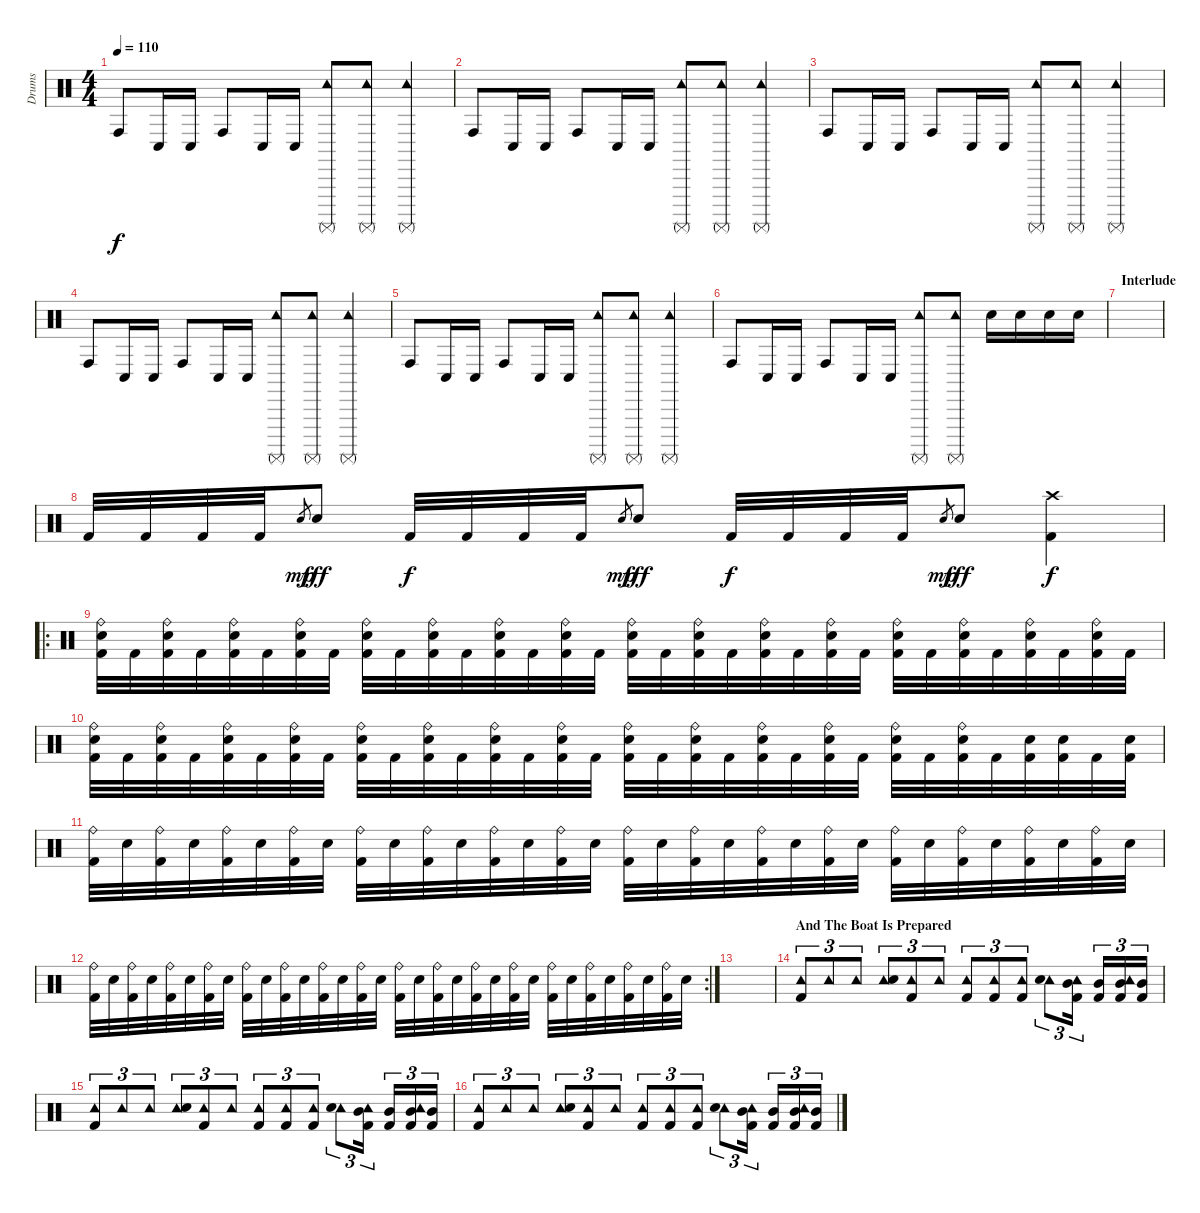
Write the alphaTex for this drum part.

\track ("Drums" "Drums") {instrument percussion}
\staff {score}
\articulation defaults
\ts (4 4)
\tempo 110
\clef neutral
\ks c "Conga high (hit)".8{dy f} "Conga low (hit)".16 "Conga low (hit)".16 "Conga high (hit)".8 "Conga low (hit)".16 "Conga low (hit)".16
("Tambourine (hit)" "Surdo (mute)").8 ("Tambourine (hit)" "Surdo (mute)").8 ("Tambourine (hit)" "Surdo (mute)").4 |
"Conga high (hit)".8 "Conga low (hit)".16 "Conga low (hit)".16 "Conga high (hit)".8 "Conga low (hit)".16 "Conga low (hit)".16 ("Tambourine (hit)" "Surdo (mute)").8 ("Tambourine (hit)" "Surdo (mute)").8 ("Tambourine (hit)" "Surdo (mute)").4 |
"Conga high (hit)".8 "Conga low (hit)".16 "Conga low (hit)".16 "Conga high (hit)".8 "Conga low (hit)".16 "Conga low (hit)".16 ("Tambourine (hit)" "Surdo (mute)").8 ("Tambourine (hit)" "Surdo (mute)").8 ("Tambourine (hit)" "Surdo (mute)").4 |
"Conga high (hit)".8 "Conga low (hit)".16 "Conga low (hit)".16 "Conga high (hit)".8 "Conga low (hit)".16 "Conga low (hit)".16 ("Tambourine (hit)" "Surdo (mute)").8 ("Tambourine (hit)" "Surdo (mute)").8 ("Tambourine (hit)" "Surdo (mute)").4 |
"Conga high (hit)".8 "Conga low (hit)".16 "Conga low (hit)".16 "Conga high (hit)".8 "Conga low (hit)".16 "Conga low (hit)".16 ("Tambourine (hit)" "Surdo (mute)").8 ("Tambourine (hit)" "Surdo (mute)").8 ("Tambourine (hit)" "Surdo (mute)").4 |
"Conga high (hit)".8 "Conga low (hit)".16 "Conga low (hit)".16 "Conga high (hit)".8 "Conga low (hit)".16 "Conga low (hit)".16 ("Tambourine (hit)" "Surdo (mute)").8 ("Tambourine (hit)" "Surdo (mute)").8 "Snare (hit) 2".16 "Snare (hit) 2".16 "Snare (hit) 2".16 "Snare (hit) 2".16 |
\section ("" "Interlude")
|
"Kick (hit) 2".32 "Kick (hit) 2".32 "Kick (hit) 2".32 "Kick (hit) 2".32 "Electric Snare (hit)".8{gr dy mp} "Electric Snare (hit)".8{dy fff} "Kick (hit) 2".32{dy f} "Kick (hit) 2".32 "Kick (hit) 2".32 "Kick (hit) 2".32 "Electric Snare (hit)".8{gr dy mp} "Electric Snare (hit)".8{dy fff} "Kick (hit) 2".32{dy f} "Kick (hit) 2".32 "Kick (hit) 2".32 "Kick (hit) 2".32 "Electric Snare (hit)".8{gr dy mp} "Electric Snare (hit)".8{dy fff} ("Crash high (hit)" "Kick (hit) 2").4{dy f} |
\ro
("Ride (bell)" "Electric Snare (hit)" "Kick (hit) 2").32 "Kick (hit) 2".32 ("Ride (bell)" "Electric Snare (hit)" "Kick (hit) 2").32 "Kick (hit) 2".32 ("Ride (bell)" "Electric Snare (hit)" "Kick (hit) 2").32 "Kick (hit) 2".32 ("Ride (bell)" "Electric Snare (hit)" "Kick (hit) 2").32 "Kick (hit) 2".32 ("Ride (bell)" "Electric Snare (hit)" "Kick (hit) 2").32 "Kick (hit) 2".32 ("Ride (bell)" "Electric Snare (hit)" "Kick (hit) 2").32 "Kick (hit) 2".32 ("Ride (bell)" "Electric Snare (hit)" "Kick (hit) 2").32 "Kick (hit) 2".32 ("Ride (bell)" "Electric Snare (hit)" "Kick (hit) 2").32 "Kick (hit) 2".32 ("Ride (bell)" "Electric Snare (hit)" "Kick (hit) 2").32 "Kick (hit) 2".32 ("Ride (bell)" "Electric Snare (hit)" "Kick (hit) 2").32 "Kick (hit) 2".32 ("Ride (bell)" "Electric Snare (hit)" "Kick (hit) 2").32 "Kick (hit) 2".32 ("Ride (bell)" "Electric Snare (hit)" "Kick (hit) 2").32 "Kick (hit) 2".32 ("Ride (bell)" "Electric Snare (hit)" "Kick (hit) 2").32 "Kick (hit) 2".32 ("Ride (bell)" "Electric Snare (hit)" "Kick (hit) 2").32 "Kick (hit) 2".32 ("Ride (bell)" "Electric Snare (hit)" "Kick (hit) 2").32 "Kick (hit) 2".32 ("Ride (bell)" "Electric Snare (hit)" "Kick (hit) 2").32 "Kick (hit) 2".32 |
("Ride (bell)" "Electric Snare (hit)" "Kick (hit) 2").32 "Kick (hit) 2".32 ("Ride (bell)" "Electric Snare (hit)" "Kick (hit) 2").32 "Kick (hit) 2".32 ("Ride (bell)" "Electric Snare (hit)" "Kick (hit) 2").32 "Kick (hit) 2".32 ("Ride (bell)" "Electric Snare (hit)" "Kick (hit) 2").32 "Kick (hit) 2".32 ("Ride (bell)" "Electric Snare (hit)" "Kick (hit) 2").32 "Kick (hit) 2".32 ("Ride (bell)" "Electric Snare (hit)" "Kick (hit) 2").32 "Kick (hit) 2".32 ("Ride (bell)" "Electric Snare (hit)" "Kick (hit) 2").32 "Kick (hit) 2".32 ("Ride (bell)" "Electric Snare (hit)" "Kick (hit) 2").32 "Kick (hit) 2".32 ("Ride (bell)" "Electric Snare (hit)" "Kick (hit) 2").32 "Kick (hit) 2".32 ("Ride (bell)" "Electric Snare (hit)" "Kick (hit) 2").32 "Kick (hit) 2".32 ("Ride (bell)" "Electric Snare (hit)" "Kick (hit) 2").32 "Kick (hit) 2".32 ("Ride (bell)" "Electric Snare (hit)" "Kick (hit) 2").32 "Kick (hit) 2".32 ("Ride (bell)" "Electric Snare (hit)" "Kick (hit) 2").32 "Kick (hit) 2".32 ("Ride (bell)" "Electric Snare (hit)" "Kick (hit) 2").32 "Kick (hit) 2".32 ("Electric Snare (hit)" "Kick (hit) 2").32 ("Electric Snare (hit)" "Kick (hit) 2").32 "Kick (hit) 2".32 ("Electric Snare (hit)" "Kick (hit) 2").32 |
("Ride (bell)" "Kick (hit) 2").32 "Electric Snare (hit)".32 ("Ride (bell)" "Kick (hit) 2").32 "Electric Snare (hit)".32 ("Ride (bell)" "Kick (hit) 2").32 "Electric Snare (hit)".32 ("Ride (bell)" "Kick (hit) 2").32 "Electric Snare (hit)".32 ("Ride (bell)" "Kick (hit) 2").32 "Electric Snare (hit)".32 ("Ride (bell)" "Kick (hit) 2").32 "Electric Snare (hit)".32 ("Ride (bell)" "Kick (hit) 2").32 "Electric Snare (hit)".32 ("Ride (bell)" "Kick (hit) 2").32 "Electric Snare (hit)".32 ("Ride (bell)" "Kick (hit) 2").32 "Electric Snare (hit)".32 ("Ride (bell)" "Kick (hit) 2").32 "Electric Snare (hit)".32 ("Ride (bell)" "Kick (hit) 2").32 "Electric Snare (hit)".32 ("Ride (bell)" "Kick (hit) 2").32 "Electric Snare (hit)".32 ("Ride (bell)" "Kick (hit) 2").32 "Electric Snare (hit)".32 ("Ride (bell)" "Kick (hit) 2").32 "Electric Snare (hit)".32 ("Ride (bell)" "Kick (hit) 2").32 "Electric Snare (hit)".32 ("Ride (bell)" "Kick (hit) 2").32 "Electric Snare (hit)".32 |
\rc 2
("Ride (bell)" "Kick (hit) 2").32 "Electric Snare (hit)".32 ("Ride (bell)" "Kick (hit) 2").32 "Electric Snare (hit)".32 ("Ride (bell)" "Kick (hit) 2").32 "Electric Snare (hit)".32 ("Ride (bell)" "Kick (hit) 2").32 "Electric Snare (hit)".32 ("Ride (bell)" "Kick (hit) 2").32 "Electric Snare (hit)".32 ("Ride (bell)" "Kick (hit) 2").32 "Electric Snare (hit)".32 ("Ride (bell)" "Kick (hit) 2").32 "Electric Snare (hit)".32 ("Ride (bell)" "Kick (hit) 2").32 "Electric Snare (hit)".32 ("Ride (bell)" "Kick (hit) 2").32 "Electric Snare (hit)".32 ("Ride (bell)" "Kick (hit) 2").32 "Electric Snare (hit)".32 ("Ride (bell)" "Kick (hit) 2").32 "Electric Snare (hit)".32 ("Ride (bell)" "Kick (hit) 2").32 "Electric Snare (hit)".32 ("Ride (bell)" "Kick (hit) 2").32 "Electric Snare (hit)".32 ("Ride (bell)" "Kick (hit) 2").32 "Electric Snare (hit)".32 ("Ride (bell)" "Kick (hit) 2").32 "Electric Snare (hit)".32 ("Ride (bell)" "Kick (hit) 2").32 "Electric Snare (hit)".32 |
|
\section ("" "And The Boat Is Prepared")
("Tambourine (hit)" "Kick (hit) 2").8{tu (3 2)} "Tambourine (hit)".8{tu (3 2)} "Tambourine (hit)".8{tu (3 2)} ("Tambourine (hit)" "Electric Snare (hit)").8{tu (3 2)} ("Tambourine (hit)" "Kick (hit) 2").8{tu (3 2)} "Tambourine (hit)".8{tu (3 2)} ("Tambourine (hit)" "Kick (hit) 2").8{tu (3 2)} ("Tambourine (hit)" "Kick (hit) 2").8{tu (3 2)} ("Tambourine (hit)" "Kick (hit) 2").8{tu (3 2)} ("Tambourine (hit)" "Electric Snare (hit)").8{tu (3 2)} ("Tambourine (hit)" "Mid Tom (hit)" "Kick (hit) 2").16{tu (3 2)} ("Mid Tom (hit)" "Kick (hit) 2").16{tu (3 2)} ("Tambourine (hit)" "Mid Tom (hit)" "Kick (hit) 2").16{tu (3 2)} ("Mid Tom (hit)" "Kick (hit) 2").16{tu (3 2)} |
("Tambourine (hit)" "Kick (hit) 2").8{tu (3 2)} "Tambourine (hit)".8{tu (3 2)} "Tambourine (hit)".8{tu (3 2)} ("Tambourine (hit)" "Electric Snare (hit)").8{tu (3 2)} ("Tambourine (hit)" "Kick (hit) 2").8{tu (3 2)} "Tambourine (hit)".8{tu (3 2)} ("Tambourine (hit)" "Kick (hit) 2").8{tu (3 2)} ("Tambourine (hit)" "Kick (hit) 2").8{tu (3 2)} ("Tambourine (hit)" "Kick (hit) 2").8{tu (3 2)} ("Tambourine (hit)" "Electric Snare (hit)").8{tu (3 2)} ("Tambourine (hit)" "Mid Tom (hit)" "Kick (hit) 2").16{tu (3 2)} ("Mid Tom (hit)" "Kick (hit) 2").16{tu (3 2)} ("Tambourine (hit)" "Mid Tom (hit)" "Kick (hit) 2").16{tu (3 2)} ("Mid Tom (hit)" "Kick (hit) 2").16{tu (3 2)} |
("Tambourine (hit)" "Kick (hit) 2").8{tu (3 2)} "Tambourine (hit)".8{tu (3 2)} "Tambourine (hit)".8{tu (3 2)} ("Tambourine (hit)" "Electric Snare (hit)").8{tu (3 2)} ("Tambourine (hit)" "Kick (hit) 2").8{tu (3 2)} "Tambourine (hit)".8{tu (3 2)} ("Tambourine (hit)" "Kick (hit) 2").8{tu (3 2)} ("Tambourine (hit)" "Kick (hit) 2").8{tu (3 2)} ("Tambourine (hit)" "Kick (hit) 2").8{tu (3 2)} ("Tambourine (hit)" "Electric Snare (hit)").8{tu (3 2)} ("Tambourine (hit)" "Mid Tom (hit)" "Kick (hit) 2").16{tu (3 2)} ("Mid Tom (hit)" "Kick (hit) 2").16{tu (3 2)} ("Tambourine (hit)" "Mid Tom (hit)" "Kick (hit) 2").16{tu (3 2)} ("Mid Tom (hit)" "Kick (hit) 2").16{tu (3 2)}
